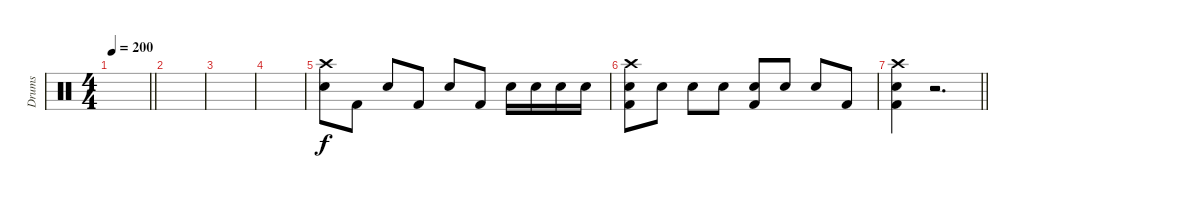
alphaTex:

\track ("Drums" "Drums") {instrument percussion}
\staff {score}
\articulation defaults
\ts (4 4)
\tempo 200
\clef neutral
\barLineRight lightlight
\ks c
|
|
|
|
("Crash high (hit)" "Electric Snare (hit)").8 "Kick (hit) 2".8 "Electric Snare (hit)".8 "Kick (hit) 2".8 "Electric Snare (hit)".8 "Kick (hit) 2".8 "Electric Snare (hit)".16 "Electric Snare (hit)".16 "Electric Snare (hit)".16 "Electric Snare (hit)".16 |
("Crash high (hit)" "Kick (hit) 2" "Electric Snare (hit)").8 "Electric Snare (hit)".8 "Electric Snare (hit)".8 "Electric Snare (hit)".8 ("Kick (hit) 2" "Electric Snare (hit)").8 "Electric Snare (hit)".8 "Electric Snare (hit)".8 "Kick (hit) 2".8 |
\barLineRight lightlight
("Crash high (hit)" "Kick (hit) 2" "Electric Snare (hit)").4 r.2{d}
